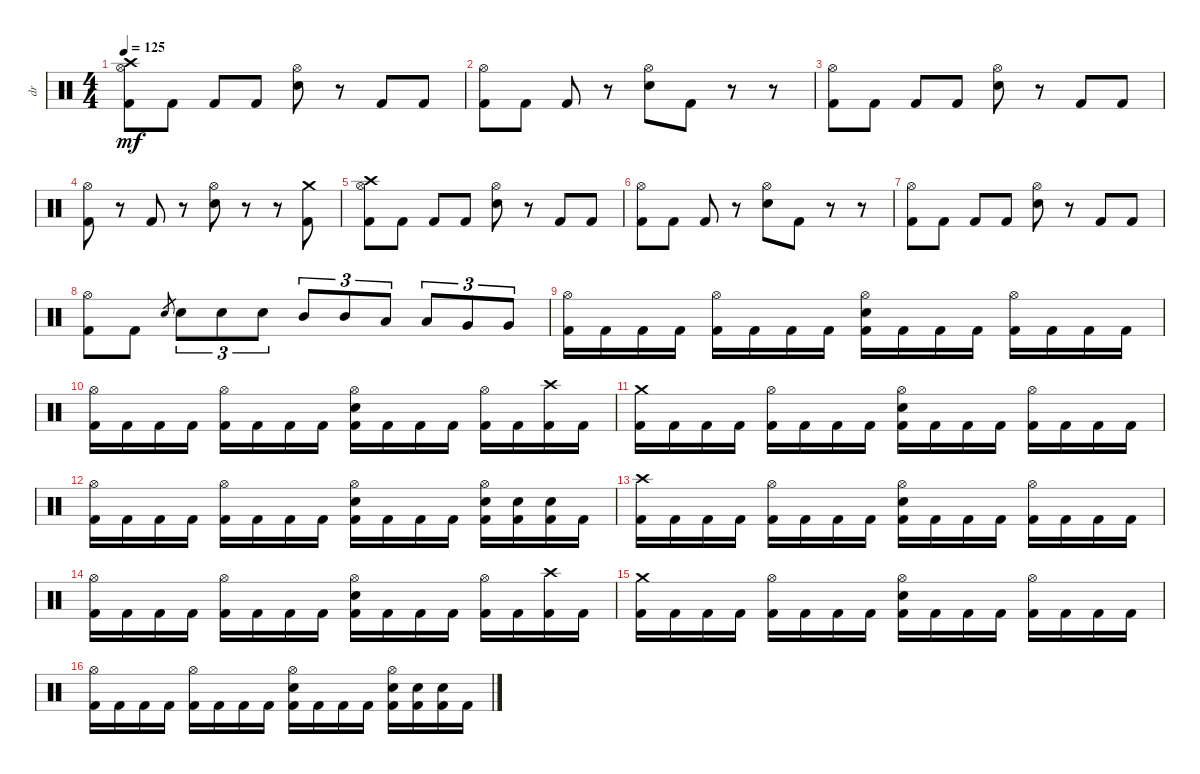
\track ("dr" "dr") {instrument percussion}
\staff {score}
\articulation defaults
\ts (4 4)
\tempo 125
\clef neutral
\ks c
("Crash high (hit)" "Hi-Hat (open)" "Kick (hit) 2").8{dy mf} "Kick (hit) 2".8 "Kick (hit) 2".8 "Kick (hit) 2".8 ("Hi-Hat (open)" "Snare (hit) 2").8 r.8 "Kick (hit) 2".8 "Kick (hit) 2".8 |
("Hi-Hat (open)" "Kick (hit) 2").8 "Kick (hit) 2".8 "Kick (hit) 2".8 r.8 ("Hi-Hat (open)" "Snare (hit) 2").8 "Kick (hit) 2".8 r.8 r.8 |
("Hi-Hat (open)" "Kick (hit) 2").8 "Kick (hit) 2".8 "Kick (hit) 2".8 "Kick (hit) 2".8 ("Hi-Hat (open)" "Snare (hit) 2").8 r.8 "Kick (hit) 2".8 "Kick (hit) 2".8 |
("Hi-Hat (open)" "Kick (hit) 2").8 r.8 "Kick (hit) 2".8 r.8 ("Hi-Hat (open)" "Snare (hit) 2").8 r.8 r.8 ("Crash medium (hit)" "Kick (hit) 2").8 |
("Crash high (hit)" "Hi-Hat (open)" "Kick (hit) 2").8 "Kick (hit) 2".8 "Kick (hit) 2".8 "Kick (hit) 2".8 ("Hi-Hat (open)" "Snare (hit) 2").8 r.8 "Kick (hit) 2".8 "Kick (hit) 2".8 |
("Hi-Hat (open)" "Kick (hit) 2").8 "Kick (hit) 2".8 "Kick (hit) 2".8 r.8 ("Hi-Hat (open)" "Snare (hit) 2").8 "Kick (hit) 2".8 r.8 r.8 |
("Hi-Hat (open)" "Kick (hit) 2").8 "Kick (hit) 2".8 "Kick (hit) 2".8 "Kick (hit) 2".8 ("Hi-Hat (open)" "Snare (hit) 2").8 r.8 "Kick (hit) 2".8 "Kick (hit) 2".8 |
("Hi-Hat (open)" "Kick (hit) 2").8 "Kick (hit) 2".8 "Snare (hit) 2"{h}.8{gr} "Snare (hit) 2".8{tu (3 2)} "Snare (hit) 2".8{tu (3 2)} "Snare (hit) 2".8{tu (3 2)} "Mid Tom (hit)".8{tu (3 2)} "Mid Tom (hit)".8{tu (3 2)} "Low Tom (hit)".8{tu (3 2)} "Low Tom (hit)".8{tu (3 2)} "Very Low Tom (hit)".8{tu (3 2)} "Very Low Tom (hit)".8{tu (3 2)} |
("Hi-Hat (open)" "Kick (hit) 2").16 "Kick (hit) 2".16 "Kick (hit) 2".16 "Kick (hit) 2".16 ("Hi-Hat (open)" "Kick (hit) 2").16 "Kick (hit) 2".16 "Kick (hit) 2".16 "Kick (hit) 2".16 ("Hi-Hat (open)" "Snare (hit) 2" "Kick (hit) 2").16 "Kick (hit) 2".16 "Kick (hit) 2".16 "Kick (hit) 2".16 ("Hi-Hat (open)" "Kick (hit) 2").16 "Kick (hit) 2".16 "Kick (hit) 2".16 "Kick (hit) 2".16 |
("Hi-Hat (open)" "Kick (hit) 2").16 "Kick (hit) 2".16 "Kick (hit) 2".16 "Kick (hit) 2".16 ("Hi-Hat (open)" "Kick (hit) 2").16 "Kick (hit) 2".16 "Kick (hit) 2".16 "Kick (hit) 2".16 ("Hi-Hat (open)" "Snare (hit) 2" "Kick (hit) 2").16 "Kick (hit) 2".16 "Kick (hit) 2".16 "Kick (hit) 2".16 ("Hi-Hat (open)" "Kick (hit) 2").16 "Kick (hit) 2".16 ("Crash high (hit)" "Kick (hit) 2").16 "Kick (hit) 2".16 |
("Crash medium (hit)" "Kick (hit) 2").16 "Kick (hit) 2".16 "Kick (hit) 2".16 "Kick (hit) 2".16 ("Hi-Hat (open)" "Kick (hit) 2").16 "Kick (hit) 2".16 "Kick (hit) 2".16 "Kick (hit) 2".16 ("Hi-Hat (open)" "Snare (hit) 2" "Kick (hit) 2").16 "Kick (hit) 2".16 "Kick (hit) 2".16 "Kick (hit) 2".16 ("Hi-Hat (open)" "Kick (hit) 2").16 "Kick (hit) 2".16 "Kick (hit) 2".16 "Kick (hit) 2".16 |
("Hi-Hat (open)" "Kick (hit) 2").16 "Kick (hit) 2".16 "Kick (hit) 2".16 "Kick (hit) 2".16 ("Hi-Hat (open)" "Kick (hit) 2").16 "Kick (hit) 2".16 "Kick (hit) 2".16 "Kick (hit) 2".16 ("Hi-Hat (open)" "Snare (hit) 2" "Kick (hit) 2").16 "Kick (hit) 2".16 "Kick (hit) 2".16 "Kick (hit) 2".16 ("Hi-Hat (open)" "Snare (hit) 2" "Kick (hit) 2").16 ("Snare (hit) 2" "Kick (hit) 2").16 ("Snare (hit) 2" "Kick (hit) 2").16 "Kick (hit) 2".16 |
("Crash high (hit)" "Kick (hit) 2").16 "Kick (hit) 2".16 "Kick (hit) 2".16 "Kick (hit) 2".16 ("Hi-Hat (open)" "Kick (hit) 2").16 "Kick (hit) 2".16 "Kick (hit) 2".16 "Kick (hit) 2".16 ("Hi-Hat (open)" "Snare (hit) 2" "Kick (hit) 2").16 "Kick (hit) 2".16 "Kick (hit) 2".16 "Kick (hit) 2".16 ("Hi-Hat (open)" "Kick (hit) 2").16 "Kick (hit) 2".16 "Kick (hit) 2".16 "Kick (hit) 2".16 |
("Hi-Hat (open)" "Kick (hit) 2").16 "Kick (hit) 2".16 "Kick (hit) 2".16 "Kick (hit) 2".16 ("Hi-Hat (open)" "Kick (hit) 2").16 "Kick (hit) 2".16 "Kick (hit) 2".16 "Kick (hit) 2".16 ("Hi-Hat (open)" "Snare (hit) 2" "Kick (hit) 2").16 "Kick (hit) 2".16 "Kick (hit) 2".16 "Kick (hit) 2".16 ("Hi-Hat (open)" "Kick (hit) 2").16 "Kick (hit) 2".16 ("Crash high (hit)" "Kick (hit) 2").16 "Kick (hit) 2".16 |
("Crash medium (hit)" "Kick (hit) 2").16 "Kick (hit) 2".16 "Kick (hit) 2".16 "Kick (hit) 2".16 ("Hi-Hat (open)" "Kick (hit) 2").16 "Kick (hit) 2".16 "Kick (hit) 2".16 "Kick (hit) 2".16 ("Hi-Hat (open)" "Snare (hit) 2" "Kick (hit) 2").16 "Kick (hit) 2".16 "Kick (hit) 2".16 "Kick (hit) 2".16 ("Hi-Hat (open)" "Kick (hit) 2").16 "Kick (hit) 2".16 "Kick (hit) 2".16 "Kick (hit) 2".16 |
("Hi-Hat (open)" "Kick (hit) 2").16 "Kick (hit) 2".16 "Kick (hit) 2".16 "Kick (hit) 2".16 ("Hi-Hat (open)" "Kick (hit) 2").16 "Kick (hit) 2".16 "Kick (hit) 2".16 "Kick (hit) 2".16 ("Hi-Hat (open)" "Snare (hit) 2" "Kick (hit) 2").16 "Kick (hit) 2".16 "Kick (hit) 2".16 "Kick (hit) 2".16 ("Hi-Hat (open)" "Snare (hit) 2" "Kick (hit) 2").16 ("Snare (hit) 2" "Kick (hit) 2").16 ("Snare (hit) 2" "Kick (hit) 2").16 "Kick (hit) 2".16
